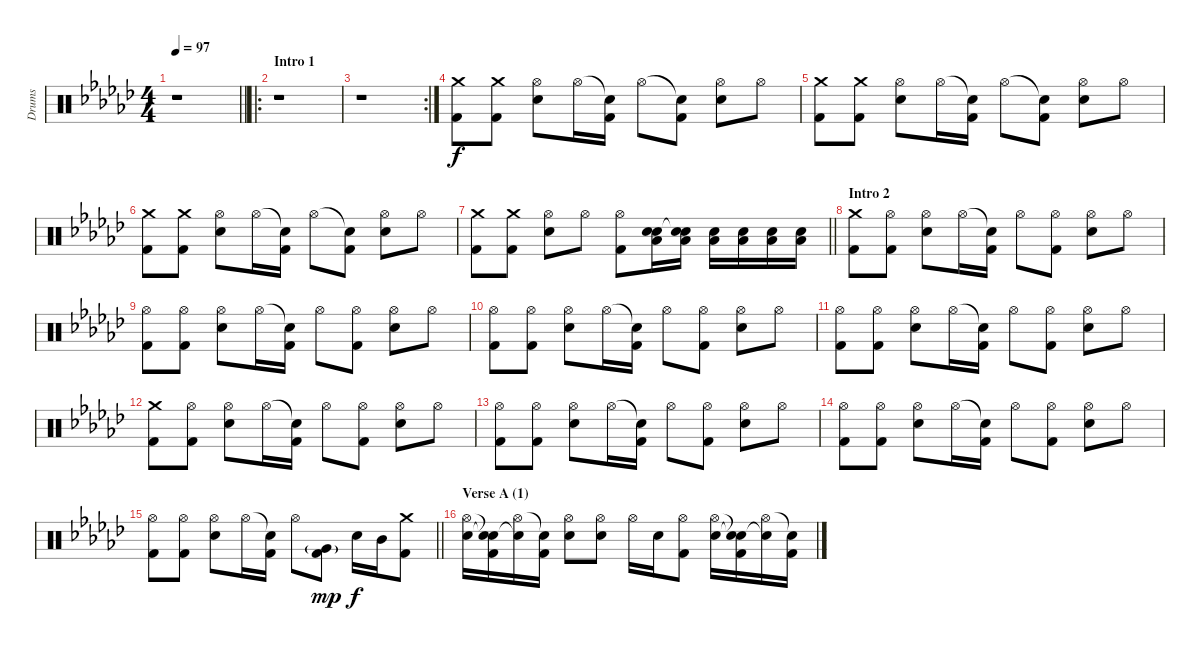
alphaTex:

\track ("Drums" "Drums") {instrument percussion}
\staff {score}
\articulation defaults
\ts (4 4)
\tempo 97
\clef neutral
\barLineRight lightlight
\ks ebminor
r.1{dy f} |
\ro
\section ("" "Intro 1")
r.1 |
\rc 2
r.1 |
("Crash medium (hit)" "Kick (hit) 2").8 ("Crash medium (hit)" "Kick (hit) 2").8 ("Hi-Hat (open)" "Electric Snare (hit)").8 "Hi-Hat (open)".16 ("Snare (hit)"{t} "Kick (hit) 2").16 "Hi-Hat (open)".8 ("Snare (hit)"{t} "Kick (hit) 2").8 ("Hi-Hat (open)" "Electric Snare (hit)").8 "Hi-Hat (open)".8 |
("Crash medium (hit)" "Kick (hit) 2").8 ("Crash medium (hit)" "Kick (hit) 2").8 ("Hi-Hat (open)" "Electric Snare (hit)").8 "Hi-Hat (open)".16 ("Snare (hit)"{t} "Kick (hit) 2").16 "Hi-Hat (open)".8 ("Snare (hit)"{t} "Kick (hit) 2").8 ("Hi-Hat (open)" "Electric Snare (hit)").8 "Hi-Hat (open)".8 |
("Crash medium (hit)" "Kick (hit) 2").8 ("Crash medium (hit)" "Kick (hit) 2").8 ("Hi-Hat (open)" "Electric Snare (hit)").8 "Hi-Hat (open)".16 ("Snare (hit)"{t} "Kick (hit) 2").16 "Hi-Hat (open)".8 ("Snare (hit)"{t} "Kick (hit) 2").8 ("Hi-Hat (open)" "Electric Snare (hit)").8 "Hi-Hat (open)".8 |
\barLineRight lightlight
("Crash medium (hit)" "Kick (hit) 2").8 ("Crash medium (hit)" "Kick (hit) 2").8 ("Hi-Hat (open)" "Electric Snare (hit)").8 "Hi-Hat (open)".8 ("Hi-Hat (open)" "Kick (hit) 2").8 ("Electric Snare (hit)" "Low Floor Tom (hit)" "Snare (hit)").16 ("Electric Snare (hit)" "Low Floor Tom (hit)" "Snare (hit)"{t}).16 ("Electric Snare (hit)" "Low Floor Tom (hit)").16 ("Electric Snare (hit)" "Low Floor Tom (hit)").16 ("Electric Snare (hit)" "Low Floor Tom (hit)").16 ("Electric Snare (hit)" "Low Floor Tom (hit)").16 |
\section ("" "Intro 2")
("Crash medium (hit)" "Kick (hit) 2").8 ("Hi-Hat (open)" "Kick (hit) 2").8 ("Hi-Hat (open)" "Electric Snare (hit)").8 "Hi-Hat (open)".16 ("Snare (hit)"{t} "Kick (hit) 2").16 "Hi-Hat (open)".8 ("Hi-Hat (open)" "Kick (hit) 2").8 ("Hi-Hat (open)" "Electric Snare (hit)").8 "Hi-Hat (open)".8 |
("Hi-Hat (open)" "Kick (hit) 2").8 ("Hi-Hat (open)" "Kick (hit) 2").8 ("Hi-Hat (open)" "Electric Snare (hit)").8 "Hi-Hat (open)".16 ("Snare (hit)"{t} "Kick (hit) 2").16 "Hi-Hat (open)".8 ("Hi-Hat (open)" "Kick (hit) 2").8 ("Hi-Hat (open)" "Electric Snare (hit)").8 "Hi-Hat (open)".8 |
("Hi-Hat (open)" "Kick (hit) 2").8 ("Hi-Hat (open)" "Kick (hit) 2").8 ("Hi-Hat (open)" "Electric Snare (hit)").8 "Hi-Hat (open)".16 ("Snare (hit)"{t} "Kick (hit) 2").16 "Hi-Hat (open)".8 ("Hi-Hat (open)" "Kick (hit) 2").8 ("Hi-Hat (open)" "Electric Snare (hit)").8 "Hi-Hat (open)".8 |
("Hi-Hat (open)" "Kick (hit) 2").8 ("Hi-Hat (open)" "Kick (hit) 2").8 ("Hi-Hat (open)" "Electric Snare (hit)").8 "Hi-Hat (open)".16 ("Snare (hit)"{t} "Kick (hit) 2").16 "Hi-Hat (open)".8 ("Hi-Hat (open)" "Kick (hit) 2").8 ("Hi-Hat (open)" "Electric Snare (hit)").8 "Hi-Hat (open)".8 |
("Crash medium (hit)" "Kick (hit) 2").8 ("Hi-Hat (open)" "Kick (hit) 2").8 ("Hi-Hat (open)" "Electric Snare (hit)").8 "Hi-Hat (open)".16 ("Snare (hit)"{t} "Kick (hit) 2").16 "Hi-Hat (open)".8 ("Hi-Hat (open)" "Kick (hit) 2").8 ("Hi-Hat (open)" "Electric Snare (hit)").8 "Hi-Hat (open)".8 |
("Hi-Hat (open)" "Kick (hit) 2").8 ("Hi-Hat (open)" "Kick (hit) 2").8 ("Hi-Hat (open)" "Electric Snare (hit)").8 "Hi-Hat (open)".16 ("Snare (hit)"{t} "Kick (hit) 2").16 "Hi-Hat (open)".8 ("Hi-Hat (open)" "Kick (hit) 2").8 ("Hi-Hat (open)" "Electric Snare (hit)").8 "Hi-Hat (open)".8 |
("Hi-Hat (open)" "Kick (hit) 2").8 ("Hi-Hat (open)" "Kick (hit) 2").8 ("Hi-Hat (open)" "Electric Snare (hit)").8 "Hi-Hat (open)".16 ("Snare (hit)"{t} "Kick (hit) 2").16 "Hi-Hat (open)".8 ("Hi-Hat (open)" "Kick (hit) 2").8 ("Hi-Hat (open)" "Electric Snare (hit)").8 "Hi-Hat (open)".8 |
\barLineRight lightlight
("Hi-Hat (open)" "Kick (hit) 2").8 ("Hi-Hat (open)" "Kick (hit) 2").8 ("Hi-Hat (open)" "Electric Snare (hit)").8 "Hi-Hat (open)".16 ("Snare (hit)"{t} "Kick (hit) 2").16 "Hi-Hat (open)".8 ("Very Low Tom (hit)"{g} "Kick (hit) 2").8{dy mp} "Electric Snare (hit)".16{dy f} "Mid Tom (hit)".16 ("Crash medium (hit)" "Kick (hit) 2").8 |
\section ("" "Verse A (1)")
("Hi-Hat (open)" "Electric Snare (hit)").16 ("Snare (hit)"{t} "Snare (hit)"{t} "Kick (hit) 2").16 ("Hi-Hat (open)" "Snare (hit)"{t}).16 ("Snare (hit)"{t} "Kick (hit) 2").16 ("Hi-Hat (open)" "Electric Snare (hit)").8 ("Hi-Hat (open)" "Electric Snare (hit)").8 "Hi-Hat (open)".16 "Electric Snare (hit)".16 ("Hi-Hat (open)" "Kick (hit) 2").8 ("Hi-Hat (open)" "Electric Snare (hit)").16 ("Snare (hit)"{t} "Snare (hit)"{t} "Kick (hit) 2").16 ("Hi-Hat (open)" "Snare (hit)"{t}).16 ("Snare (hit)"{t} "Kick (hit) 2").16
